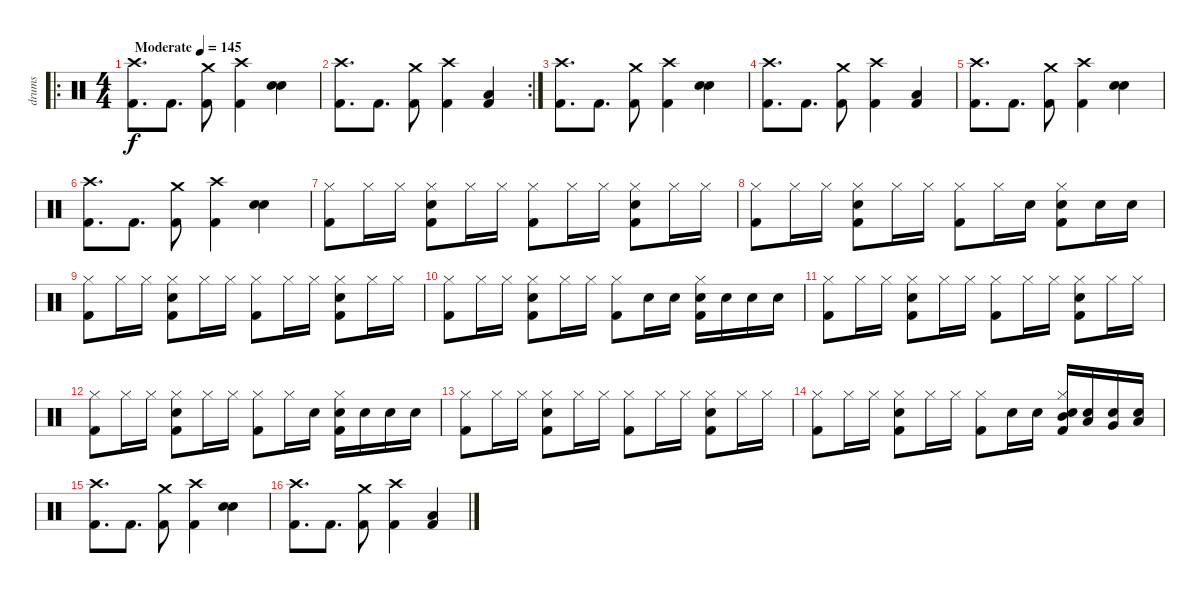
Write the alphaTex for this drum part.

\track ("drums" "drums") {instrument percussion}
\staff {score}
\articulation defaults
\ro
\ts (4 4)
\tempo (145 "Moderate")
\clef neutral
\ks c
("Crash high (hit)" "Kick (hit) 2").8{d dy f} "Kick (hit) 2".8{d} ("Crash medium (hit)" "Kick (hit) 2").8 ("Crash high (hit)" "Kick (hit) 2").4 ("Snare (hit) 2" "Electric Snare (hit)").4 |
\rc 2
("Crash high (hit)" "Kick (hit) 2").8{d} "Kick (hit) 2".8{d} ("Crash medium (hit)" "Kick (hit) 2").8 ("Crash high (hit)" "Kick (hit) 2").4 ("Low Tom (hit)" "Kick (hit) 2").4 |
("Crash high (hit)" "Kick (hit) 2").8{d} "Kick (hit) 2".8{d} ("Crash medium (hit)" "Kick (hit) 2").8 ("Crash high (hit)" "Kick (hit) 2").4 ("Snare (hit) 2" "Electric Snare (hit)").4 |
("Crash high (hit)" "Kick (hit) 2").8{d} "Kick (hit) 2".8{d} ("Crash medium (hit)" "Kick (hit) 2").8 ("Crash high (hit)" "Kick (hit) 2").4 ("Low Tom (hit)" "Kick (hit) 2").4 |
("Crash high (hit)" "Kick (hit) 2").8{d} "Kick (hit) 2".8{d} ("Crash medium (hit)" "Kick (hit) 2").8 ("Crash high (hit)" "Kick (hit) 2").4 ("Snare (hit) 2" "Electric Snare (hit)").4 |
("Crash high (hit)" "Kick (hit) 2").8{d} "Kick (hit) 2".8{d} ("Crash medium (hit)" "Kick (hit) 2").8 ("Crash high (hit)" "Kick (hit) 2").4 ("Snare (hit) 2" "Electric Snare (hit)").4 |
("Hi-Hat (closed)" "Kick (hit) 2").8 "Hi-Hat (closed)".16 "Hi-Hat (closed)".16 ("Hi-Hat (closed)" "Snare (hit) 2" "Kick (hit) 2").8 "Hi-Hat (closed)".16 "Hi-Hat (closed)".16 ("Hi-Hat (closed)" "Kick (hit) 2").8 "Hi-Hat (closed)".16 "Hi-Hat (closed)".16 ("Hi-Hat (closed)" "Snare (hit) 2" "Kick (hit) 2").8 "Hi-Hat (closed)".16 "Hi-Hat (closed)".16 |
("Hi-Hat (closed)" "Kick (hit) 2").8 "Hi-Hat (closed)".16 "Hi-Hat (closed)".16 ("Hi-Hat (closed)" "Snare (hit) 2" "Kick (hit) 2").8 "Hi-Hat (closed)".16 "Hi-Hat (closed)".16 ("Hi-Hat (closed)" "Kick (hit) 2").8 "Hi-Hat (closed)".16 "Snare (hit) 2".16 ("Hi-Hat (closed)" "Snare (hit) 2" "Kick (hit) 2").8 "Snare (hit) 2".16 "Snare (hit) 2".16 |
("Hi-Hat (closed)" "Kick (hit) 2").8 "Hi-Hat (closed)".16 "Hi-Hat (closed)".16 ("Hi-Hat (closed)" "Snare (hit) 2" "Kick (hit) 2").8 "Hi-Hat (closed)".16 "Hi-Hat (closed)".16 ("Hi-Hat (closed)" "Kick (hit) 2").8 "Hi-Hat (closed)".16 "Hi-Hat (closed)".16 ("Hi-Hat (closed)" "Snare (hit) 2" "Kick (hit) 2").8 "Hi-Hat (closed)".16 "Hi-Hat (closed)".16 |
("Hi-Hat (closed)" "Kick (hit) 2").8 "Hi-Hat (closed)".16 "Hi-Hat (closed)".16 ("Hi-Hat (closed)" "Snare (hit) 2" "Kick (hit) 2").8 "Hi-Hat (closed)".16 "Hi-Hat (closed)".16 ("Hi-Hat (closed)" "Kick (hit) 2").8 "Snare (hit) 2".16 "Snare (hit) 2".16 ("Hi-Hat (closed)" "Snare (hit) 2" "Kick (hit) 2").16 "Snare (hit) 2".16 "Snare (hit) 2".16 "Snare (hit) 2".16 |
("Hi-Hat (closed)" "Kick (hit) 2").8 "Hi-Hat (closed)".16 "Hi-Hat (closed)".16 ("Hi-Hat (closed)" "Snare (hit) 2" "Kick (hit) 2").8 "Hi-Hat (closed)".16 "Hi-Hat (closed)".16 ("Hi-Hat (closed)" "Kick (hit) 2").8 "Hi-Hat (closed)".16 "Hi-Hat (closed)".16 ("Hi-Hat (closed)" "Snare (hit) 2" "Kick (hit) 2").8 "Hi-Hat (closed)".16 "Hi-Hat (closed)".16 |
("Hi-Hat (closed)" "Kick (hit) 2").8 "Hi-Hat (closed)".16 "Hi-Hat (closed)".16 ("Hi-Hat (closed)" "Snare (hit) 2" "Kick (hit) 2").8 "Hi-Hat (closed)".16 "Hi-Hat (closed)".16 ("Hi-Hat (closed)" "Kick (hit) 2").8 "Hi-Hat (closed)".16 "Snare (hit) 2".16 ("Hi-Hat (closed)" "Snare (hit) 2" "Kick (hit) 2").16 "Snare (hit) 2".16 "Snare (hit) 2".16 "Snare (hit) 2".16 |
("Hi-Hat (closed)" "Kick (hit) 2").8 "Hi-Hat (closed)".16 "Hi-Hat (closed)".16 ("Hi-Hat (closed)" "Snare (hit) 2" "Kick (hit) 2").8 "Hi-Hat (closed)".16 "Hi-Hat (closed)".16 ("Hi-Hat (closed)" "Kick (hit) 2").8 "Hi-Hat (closed)".16 "Hi-Hat (closed)".16 ("Hi-Hat (closed)" "Snare (hit) 2" "Kick (hit) 2").8 "Hi-Hat (closed)".16 "Hi-Hat (closed)".16 |
("Hi-Hat (closed)" "Kick (hit) 2").8 "Hi-Hat (closed)".16 "Hi-Hat (closed)".16 ("Hi-Hat (closed)" "Snare (hit) 2" "Kick (hit) 2").8 "Hi-Hat (closed)".16 "Hi-Hat (closed)".16 ("Hi-Hat (closed)" "Kick (hit) 2").8 "Snare (hit) 2".16 "Snare (hit) 2".16 ("Hi-Hat (closed)" "Snare (hit) 2" "Mid Tom (hit)" "Kick (hit) 2").16 ("Snare (hit) 2" "Low Tom (hit)").16 ("Snare (hit) 2" "Very Low Tom (hit)").16 ("Snare (hit) 2" "Low Floor Tom (hit)").16 |
("Crash high (hit)" "Kick (hit) 2").8{d} "Kick (hit) 2".8{d} ("Crash medium (hit)" "Kick (hit) 2").8 ("Crash high (hit)" "Kick (hit) 2").4 ("Snare (hit) 2" "Electric Snare (hit)").4 |
("Crash high (hit)" "Kick (hit) 2").8{d} "Kick (hit) 2".8{d} ("Crash medium (hit)" "Kick (hit) 2").8 ("Crash high (hit)" "Kick (hit) 2").4 ("Low Tom (hit)" "Kick (hit) 2").4
